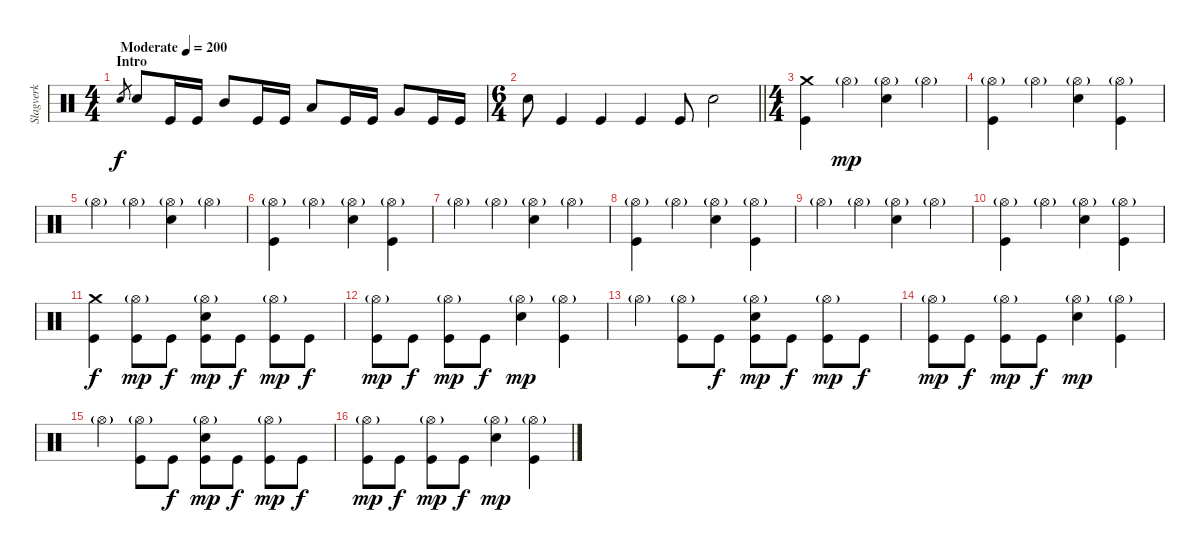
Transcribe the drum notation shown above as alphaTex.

\track ("Slagverk" "Slagverk") {instrument percussion}
\staff {score}
\articulation defaults
\ts (4 4)
\section ("" "Intro")
\tempo (200 "Moderate")
\clef neutral
\ks c "Snare (hit) 2".8{gr dy f} "Snare (hit) 2".8 "Kick (hit)".16 "Kick (hit)".16 "Mid Tom (hit)".8 "Kick (hit)".16 "Kick (hit)".16 "Low Tom (hit)".8 "Kick (hit)".16 "Kick (hit)".16 "Very Low Tom (hit)".8 "Kick (hit)".16 "Kick (hit)".16
|
\ts (6 4)
\barLineRight lightlight "Snare (hit) 2".8 "Kick (hit)".4 "Kick (hit)".4 "Kick (hit)".4 "Kick (hit)".8 "Snare (hit) 2".2
|
\ts (4 4)
\section ("" "")
("Crash medium (hit)" "Kick (hit)").4 "Hi-Hat (open)"{g}.4{dy mp} ("Hi-Hat (open)"{g} "Snare (hit) 2").4 "Hi-Hat (open)"{g}.4 |
("Hi-Hat (open)"{g} "Kick (hit)").4 "Hi-Hat (open)"{g}.4 ("Hi-Hat (open)"{g} "Snare (hit) 2").4 ("Hi-Hat (open)"{g} "Kick (hit)").4 |
"Hi-Hat (open)"{g}.4 "Hi-Hat (open)"{g}.4 ("Hi-Hat (open)"{g} "Snare (hit) 2").4 "Hi-Hat (open)"{g}.4 |
("Hi-Hat (open)"{g} "Kick (hit)").4 "Hi-Hat (open)"{g}.4 ("Hi-Hat (open)"{g} "Snare (hit) 2").4 ("Hi-Hat (open)"{g} "Kick (hit)").4 |
"Hi-Hat (open)"{g}.4 "Hi-Hat (open)"{g}.4 ("Hi-Hat (open)"{g} "Snare (hit) 2").4 "Hi-Hat (open)"{g}.4 |
("Hi-Hat (open)"{g} "Kick (hit)").4 "Hi-Hat (open)"{g}.4 ("Hi-Hat (open)"{g} "Snare (hit) 2").4 ("Hi-Hat (open)"{g} "Kick (hit)").4 |
"Hi-Hat (open)"{g}.4 "Hi-Hat (open)"{g}.4 ("Hi-Hat (open)"{g} "Snare (hit) 2").4 "Hi-Hat (open)"{g}.4 |
("Hi-Hat (open)"{g} "Kick (hit)").4 "Hi-Hat (open)"{g}.4 ("Hi-Hat (open)"{g} "Snare (hit) 2").4 ("Hi-Hat (open)"{g} "Kick (hit)").4 |
("Crash medium (hit)" "Kick (hit)").4{dy f} ("Hi-Hat (open)"{g} "Kick (hit)").8{dy mp} "Kick (hit)".8{dy f} ("Hi-Hat (open)"{g} "Snare (hit) 2" "Kick (hit)").8{dy mp} "Kick (hit)".8{dy f} ("Hi-Hat (open)"{g} "Kick (hit)").8{dy mp} "Kick (hit)".8{dy f} |
("Hi-Hat (open)"{g} "Kick (hit)").8{dy mp} "Kick (hit)".8{dy f} ("Hi-Hat (open)"{g} "Kick (hit)").8{dy mp} "Kick (hit)".8{dy f} ("Hi-Hat (open)"{g} "Snare (hit) 2").4{dy mp} ("Hi-Hat (open)"{g} "Kick (hit)").4 |
"Hi-Hat (open)"{g}.4 ("Hi-Hat (open)"{g} "Kick (hit)").8 "Kick (hit)".8{dy f} ("Hi-Hat (open)"{g} "Snare (hit) 2" "Kick (hit)").8{dy mp} "Kick (hit)".8{dy f} ("Hi-Hat (open)"{g} "Kick (hit)").8{dy mp} "Kick (hit)".8{dy f} |
("Hi-Hat (open)"{g} "Kick (hit)").8{dy mp} "Kick (hit)".8{dy f} ("Hi-Hat (open)"{g} "Kick (hit)").8{dy mp} "Kick (hit)".8{dy f} ("Hi-Hat (open)"{g} "Snare (hit) 2").4{dy mp} ("Hi-Hat (open)"{g} "Kick (hit)").4 |
"Hi-Hat (open)"{g}.4 ("Hi-Hat (open)"{g} "Kick (hit)").8 "Kick (hit)".8{dy f} ("Hi-Hat (open)"{g} "Snare (hit) 2" "Kick (hit)").8{dy mp} "Kick (hit)".8{dy f} ("Hi-Hat (open)"{g} "Kick (hit)").8{dy mp} "Kick (hit)".8{dy f} |
("Hi-Hat (open)"{g} "Kick (hit)").8{dy mp} "Kick (hit)".8{dy f} ("Hi-Hat (open)"{g} "Kick (hit)").8{dy mp} "Kick (hit)".8{dy f} ("Hi-Hat (open)"{g} "Snare (hit) 2").4{dy mp} ("Hi-Hat (open)"{g} "Kick (hit)").4
